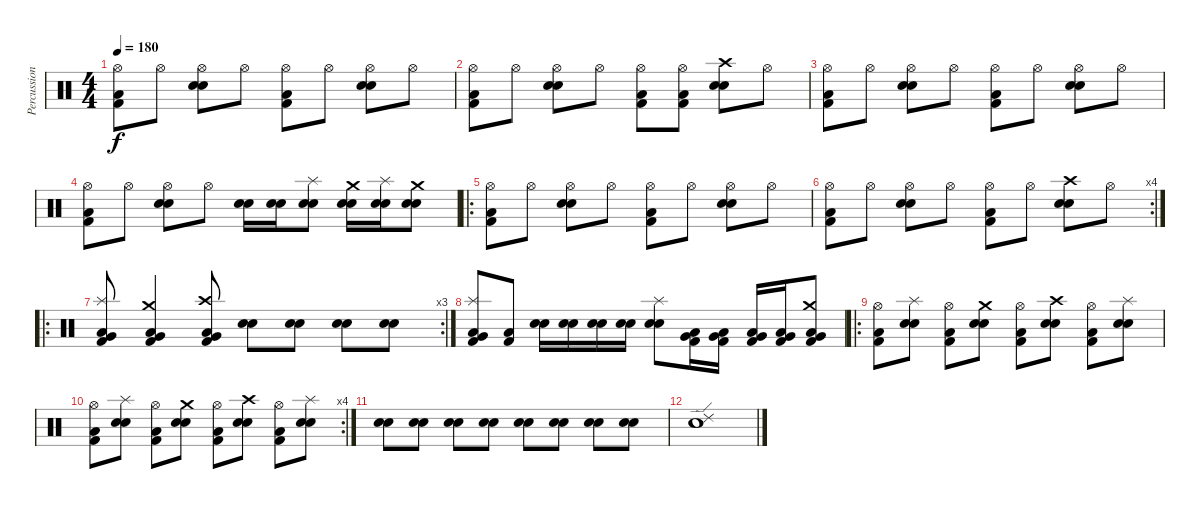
\track ("Percussions" "Percussion") {instrument percussion}
\staff {score}
\articulation defaults
\ts (4 4)
\tempo 180
\clef neutral
\ks c
("Hi-Hat (open)" "Kick (hit) 2" "Low Floor Tom (hit)").8{dy f} "Hi-Hat (open)".8 ("Hi-Hat (open)" "Snare (hit) 2" "Electric Snare (hit)").8 "Hi-Hat (open)".8 ("Hi-Hat (open)" "Kick (hit) 2" "Low Floor Tom (hit)").8 "Hi-Hat (open)".8 ("Hi-Hat (open)" "Snare (hit) 2" "Electric Snare (hit)").8 "Hi-Hat (open)".8 |
("Hi-Hat (open)" "Kick (hit) 2" "Low Floor Tom (hit)").8 "Hi-Hat (open)".8 ("Hi-Hat (open)" "Snare (hit) 2" "Electric Snare (hit)").8 "Hi-Hat (open)".8 ("Hi-Hat (open)" "Kick (hit) 2" "Low Floor Tom (hit)").8 ("Hi-Hat (open)" "Kick (hit) 2" "Low Floor Tom (hit)").8 ("Crash high (hit)" "Snare (hit) 2" "Electric Snare (hit)").8 "Hi-Hat (open)".8 |
("Hi-Hat (open)" "Kick (hit) 2" "Low Floor Tom (hit)").8 "Hi-Hat (open)".8 ("Hi-Hat (open)" "Snare (hit) 2" "Electric Snare (hit)").8 "Hi-Hat (open)".8 ("Hi-Hat (open)" "Kick (hit) 2" "Low Floor Tom (hit)").8 "Hi-Hat (open)".8 ("Hi-Hat (open)" "Snare (hit) 2" "Electric Snare (hit)").8 "Hi-Hat (open)".8 |
("Hi-Hat (open)" "Kick (hit) 2" "Low Floor Tom (hit)").8 "Hi-Hat (open)".8 ("Hi-Hat (open)" "Snare (hit) 2" "Electric Snare (hit)").8 "Hi-Hat (open)".8 ("Snare (hit) 2" "Electric Snare (hit)").16 ("Snare (hit) 2" "Electric Snare (hit)").16 ("Splash (hit)" "Snare (hit) 2" "Electric Snare (hit)").8 ("Crash medium (hit)" "Snare (hit) 2" "Electric Snare (hit)").16 ("Splash (hit)" "Snare (hit) 2" "Electric Snare (hit)").16 ("Crash medium (hit)" "Snare (hit) 2" "Electric Snare (hit)").8 |
\ro
("Hi-Hat (open)" "Kick (hit) 2" "Low Floor Tom (hit)").8 "Hi-Hat (open)".8 ("Hi-Hat (open)" "Snare (hit) 2" "Electric Snare (hit)").8 "Hi-Hat (open)".8 ("Hi-Hat (open)" "Kick (hit) 2" "Low Floor Tom (hit)").8 "Hi-Hat (open)".8 ("Hi-Hat (open)" "Snare (hit) 2" "Electric Snare (hit)").8 "Hi-Hat (open)".8 |
\rc 4
("Hi-Hat (open)" "Kick (hit) 2" "Low Floor Tom (hit)").8 "Hi-Hat (open)".8 ("Hi-Hat (open)" "Snare (hit) 2" "Electric Snare (hit)").8 "Hi-Hat (open)".8 ("Hi-Hat (open)" "Kick (hit) 2" "Low Floor Tom (hit)").8 "Hi-Hat (open)".8 ("Crash high (hit)" "Snare (hit) 2" "Electric Snare (hit)").8 "Hi-Hat (open)".8 |
\ro
\rc 3
("Splash (hit)" "Kick (hit) 2" "Low Floor Tom (hit)" "Very Low Tom (hit)").8 ("Crash medium (hit)" "Kick (hit) 2" "Low Floor Tom (hit)" "Very Low Tom (hit)").4 ("Crash high (hit)" "Kick (hit) 2" "Low Floor Tom (hit)" "Very Low Tom (hit)").8 ("Snare (hit) 2" "Electric Snare (hit)").8 ("Snare (hit) 2" "Electric Snare (hit)").8 ("Snare (hit) 2" "Electric Snare (hit)").8 ("Snare (hit) 2" "Electric Snare (hit)").8 |
("Splash (hit)" "Kick (hit) 2" "Low Floor Tom (hit)" "Very Low Tom (hit)").8 ("Kick (hit) 2" "Low Floor Tom (hit)").8 ("Snare (hit) 2" "Electric Snare (hit)").16 ("Snare (hit) 2" "Electric Snare (hit)").16 ("Snare (hit) 2" "Electric Snare (hit)").16 ("Snare (hit) 2" "Electric Snare (hit)").16 ("Splash (hit)" "Snare (hit) 2" "Electric Snare (hit)").8 ("Kick (hit) 2" "Low Floor Tom (hit)" "Very Low Tom (hit)").16 ("Kick (hit) 2" "Low Floor Tom (hit)" "Very Low Tom (hit)").16 ("Kick (hit) 2" "Low Floor Tom (hit)" "Very Low Tom (hit)").16 ("Kick (hit) 2" "Low Floor Tom (hit)" "Very Low Tom (hit)").16 ("Crash medium (hit)" "Kick (hit) 2" "Low Floor Tom (hit)" "Very Low Tom (hit)").8 |
\ro
("Hi-Hat (open)" "Kick (hit) 2" "Low Floor Tom (hit)").8 ("Splash (hit)" "Snare (hit) 2" "Electric Snare (hit)").8 ("Hi-Hat (open)" "Kick (hit) 2" "Low Floor Tom (hit)").8 ("Crash medium (hit)" "Snare (hit) 2" "Electric Snare (hit)").8 ("Hi-Hat (open)" "Kick (hit) 2" "Low Floor Tom (hit)").8 ("Crash high (hit)" "Snare (hit) 2" "Electric Snare (hit)").8 ("Hi-Hat (open)" "Kick (hit) 2" "Low Floor Tom (hit)").8 ("Splash (hit)" "Snare (hit) 2" "Electric Snare (hit)").8 |
\rc 4
("Hi-Hat (open)" "Kick (hit) 2" "Low Floor Tom (hit)").8 ("Splash (hit)" "Snare (hit) 2" "Electric Snare (hit)").8 ("Hi-Hat (open)" "Kick (hit) 2" "Low Floor Tom (hit)").8 ("Crash medium (hit)" "Snare (hit) 2" "Electric Snare (hit)").8 ("Hi-Hat (open)" "Kick (hit) 2" "Low Floor Tom (hit)").8 ("Crash high (hit)" "Snare (hit) 2" "Electric Snare (hit)").8 ("Hi-Hat (open)" "Kick (hit) 2" "Low Floor Tom (hit)").8 ("Splash (hit)" "Snare (hit) 2" "Electric Snare (hit)").8 |
("Snare (hit) 2" "Electric Snare (hit)").8 ("Snare (hit) 2" "Electric Snare (hit)").8 ("Snare (hit) 2" "Electric Snare (hit)").8 ("Snare (hit) 2" "Electric Snare (hit)").8 ("Snare (hit) 2" "Electric Snare (hit)").8 ("Snare (hit) 2" "Electric Snare (hit)").8 ("Snare (hit) 2" "Electric Snare (hit)").8 ("Snare (hit) 2" "Electric Snare (hit)").8 |
("Ride (edge) 2" "Snare (hit) 2" "Electric Snare (hit)").1
